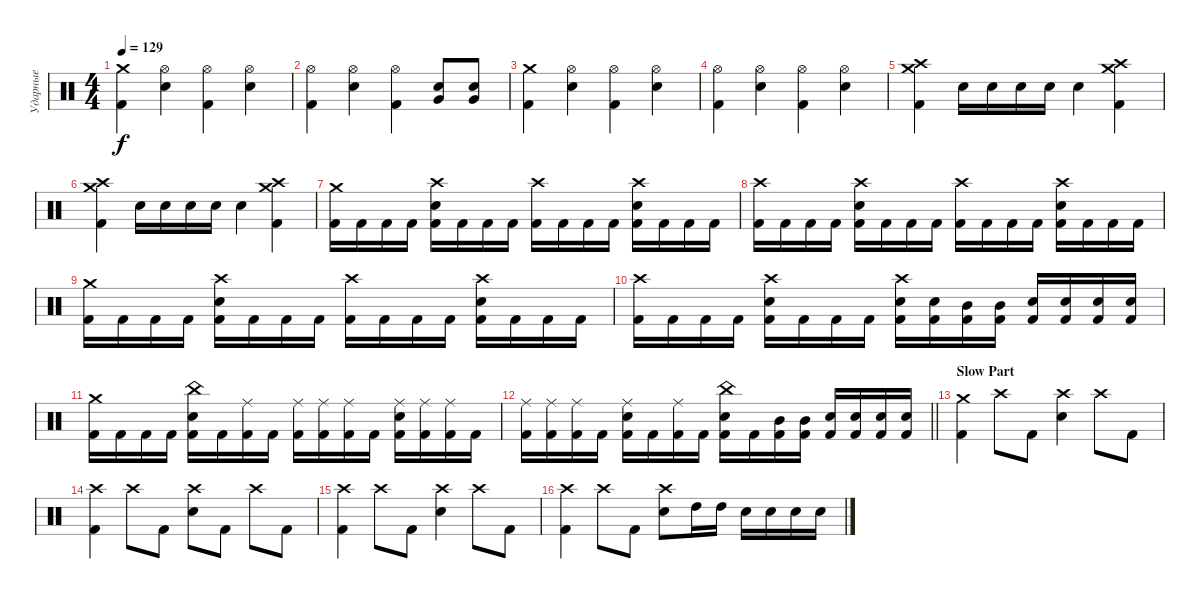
\track ("Ударные" "Ударные") {instrument percussion}
\staff
\articulation defaults
\ts (4 4)
\tempo 129
\clef neutral
\ks c
("Crash medium (hit)" "Kick (hit) 2").4{dy f} ("Hi-Hat (open)" "Snare (hit) 2").4 ("Hi-Hat (open)" "Kick (hit) 2").4 ("Hi-Hat (open)" "Snare (hit) 2").4 |
("Hi-Hat (open)" "Kick (hit) 2").4 ("Hi-Hat (open)" "Snare (hit) 2").4 ("Hi-Hat (open)" "Kick (hit) 2").4 ("Snare (hit) 2" "Very Low Tom (hit)").8 ("Snare (hit) 2" "Very Low Tom (hit)").8 |
("Crash medium (hit)" "Kick (hit) 2").4 ("Hi-Hat (open)" "Snare (hit) 2").4 ("Hi-Hat (open)" "Kick (hit) 2").4 ("Hi-Hat (open)" "Snare (hit) 2").4 |
("Hi-Hat (open)" "Kick (hit) 2").4 ("Hi-Hat (open)" "Snare (hit) 2").4 ("Hi-Hat (open)" "Kick (hit) 2").4 ("Hi-Hat (open)" "Snare (hit) 2").4 |
("Crash medium (hit)" "Crash high (hit)" "Kick (hit) 2").4 "Snare (hit) 2".16 "Snare (hit) 2".16 "Snare (hit) 2".16 "Snare (hit) 2".16 "Snare (hit) 2".4 ("Crash medium (hit)" "Crash high (hit)" "Kick (hit) 2").4 |
("Crash medium (hit)" "Crash high (hit)" "Kick (hit) 2").4 "Snare (hit) 2".16 "Snare (hit) 2".16 "Snare (hit) 2".16 "Snare (hit) 2".16 "Snare (hit) 2".4 ("Crash medium (hit)" "Crash high (hit)" "Kick (hit) 2").4 |
("Crash medium (hit)" "Kick (hit) 2").16 "Kick (hit) 2".16 "Kick (hit) 2".16 "Kick (hit) 2".16 ("Crash high (hit)" "Snare (hit) 2" "Kick (hit) 2").16 "Kick (hit) 2".16 "Kick (hit) 2".16 "Kick (hit) 2".16 ("Crash high (hit)" "Kick (hit) 2").16 "Kick (hit) 2".16 "Kick (hit) 2".16 "Kick (hit) 2".16 ("Crash high (hit)" "Snare (hit) 2" "Kick (hit) 2").16 "Kick (hit) 2".16 "Kick (hit) 2".16 "Kick (hit) 2".16 |
("Crash high (hit)" "Kick (hit) 2").16 "Kick (hit) 2".16 "Kick (hit) 2".16 "Kick (hit) 2".16 ("Crash high (hit)" "Snare (hit) 2" "Kick (hit) 2").16 "Kick (hit) 2".16 "Kick (hit) 2".16 "Kick (hit) 2".16 ("Crash high (hit)" "Kick (hit) 2").16 "Kick (hit) 2".16 "Kick (hit) 2".16 "Kick (hit) 2".16 ("Crash high (hit)" "Snare (hit) 2" "Kick (hit) 2").16 "Kick (hit) 2".16 "Kick (hit) 2".16 "Kick (hit) 2".16 |
("Crash medium (hit)" "Kick (hit) 2").16 "Kick (hit) 2".16 "Kick (hit) 2".16 "Kick (hit) 2".16 ("Crash high (hit)" "Snare (hit) 2" "Kick (hit) 2").16 "Kick (hit) 2".16 "Kick (hit) 2".16 "Kick (hit) 2".16 ("Crash high (hit)" "Kick (hit) 2").16 "Kick (hit) 2".16 "Kick (hit) 2".16 "Kick (hit) 2".16 ("Crash high (hit)" "Snare (hit) 2" "Kick (hit) 2").16 "Kick (hit) 2".16 "Kick (hit) 2".16 "Kick (hit) 2".16 |
("Crash high (hit)" "Kick (hit) 2").16 "Kick (hit) 2".16 "Kick (hit) 2".16 "Kick (hit) 2".16 ("Crash high (hit)" "Snare (hit) 2" "Kick (hit) 2").16 "Kick (hit) 2".16 "Kick (hit) 2".16 "Kick (hit) 2".16 ("Crash high (hit)" "Snare (hit) 2" "Kick (hit) 2").16 ("Snare (hit) 2" "Kick (hit) 2").16 ("Mid Tom (hit)" "Kick (hit) 2").16 ("Mid Tom (hit)" "Kick (hit) 2").16 ("Snare (hit) 2" "Kick (hit) 2").16 ("Snare (hit) 2" "Kick (hit) 2").16 ("Snare (hit) 2" "Kick (hit) 2").16 ("Snare (hit) 2" "Kick (hit) 2").16 |
("Crash medium (hit)" "Kick (hit) 2").16 "Kick (hit) 2".16 "Kick (hit) 2".16 "Kick (hit) 2".16 ("China (hit)" "Snare (hit) 2" "Kick (hit) 2").16 "Kick (hit) 2".16 ("Ride (middle)" "Kick (hit) 2").16 "Kick (hit) 2".16 ("Ride (middle)" "Kick (hit) 2").16 ("Ride (middle)" "Kick (hit) 2").16 ("Ride (middle)" "Kick (hit) 2").16 "Kick (hit) 2".16 ("Ride (middle)" "Snare (hit) 2" "Kick (hit) 2").16 ("Ride (middle)" "Kick (hit) 2").16 ("Ride (middle)" "Kick (hit) 2").16 "Kick (hit) 2".16 |
\barLineRight lightlight
("Ride (middle)" "Kick (hit) 2").16 ("Ride (middle)" "Kick (hit) 2").16 ("Ride (middle)" "Kick (hit) 2").16 "Kick (hit) 2".16 ("Ride (middle)" "Snare (hit) 2" "Kick (hit) 2").16 "Kick (hit) 2".16 ("Ride (middle)" "Kick (hit) 2").16 "Kick (hit) 2".16 ("China (hit)" "Snare (hit) 2" "Kick (hit) 2").16 "Kick (hit) 2".16 ("Mid Tom (hit)" "Kick (hit) 2").16 ("Mid Tom (hit)" "Kick (hit) 2").16 ("Snare (hit) 2" "Kick (hit) 2").16 ("Snare (hit) 2" "Kick (hit) 2").16 ("Snare (hit) 2" "Kick (hit) 2").16 ("Snare (hit) 2" "Kick (hit) 2").16 |
\section ("" "Slow Part")
("Crash medium (hit)" "Kick (hit) 2").4 "Crash high (hit)".8 "Kick (hit) 2".8 ("Crash high (hit)" "Snare (hit) 2").4 "Crash high (hit)".8 "Kick (hit) 2".8 |
("Crash high (hit)" "Kick (hit) 2").4 "Crash high (hit)".8 "Kick (hit) 2".8 ("Crash high (hit)" "Snare (hit) 2").8 "Kick (hit) 2".8 "Crash high (hit)".8 "Kick (hit) 2".8 |
("Crash high (hit)" "Kick (hit) 2").4 "Crash high (hit)".8 "Kick (hit) 2".8 ("Crash high (hit)" "Snare (hit) 2").4 "Crash high (hit)".8 "Kick (hit) 2".8 |
("Crash high (hit)" "Kick (hit) 2").4 "Crash high (hit)".8 "Kick (hit) 2".8 ("Crash high (hit)" "Snare (hit) 2").8 "High Tom (hit)".16 "High Tom (hit)".16 "Snare (hit) 2".16 "Snare (hit) 2".16 "Snare (hit) 2".16 "Snare (hit) 2".16
